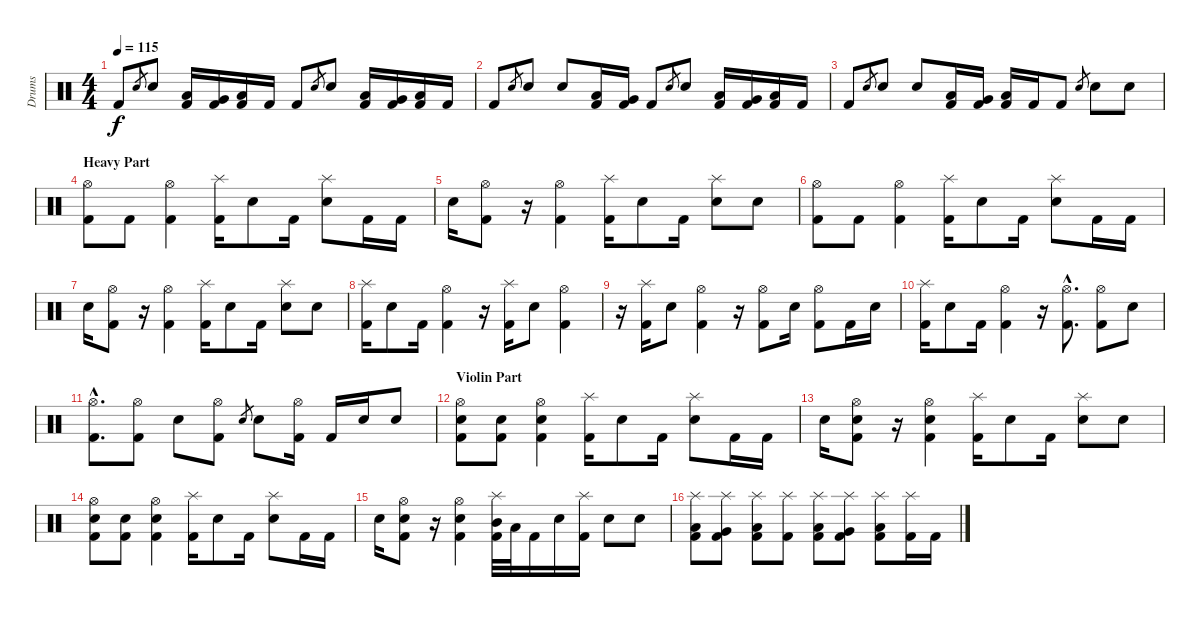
\track ("Drums" "Drums") {instrument percussion}
\staff {score}
\articulation defaults
\ts (4 4)
\tempo 115
\clef neutral
\ks c "Kick (hit) 2".8{dy f} "Snare (hit) 2".8{gr} "Snare (hit) 2".8
("Low Tom (hit)" "Kick (hit) 2").16 ("Very Low Tom (hit)" "Kick (hit) 2").16 ("Low Floor Tom (hit)" "Kick (hit) 2").16 "Kick (hit) 2".16 "Kick (hit) 2".8 "Snare (hit) 2".8{gr} "Snare (hit) 2".8 ("Low Tom (hit)" "Kick (hit) 2").16 ("Very Low Tom (hit)" "Kick (hit) 2").16 ("Low Floor Tom (hit)" "Kick (hit) 2").16 "Kick (hit) 2".16 |
"Kick (hit) 2".8 "Snare (hit) 2".8{gr} "Snare (hit) 2".8 "Snare (hit) 2".8 ("Low Tom (hit)" "Kick (hit) 2").16 ("Very Low Tom (hit)" "Kick (hit) 2").16 "Kick (hit) 2".8 "Snare (hit) 2".8{gr} "Snare (hit) 2".8 ("Low Tom (hit)" "Kick (hit) 2").16 ("Very Low Tom (hit)" "Kick (hit) 2").16 ("Low Floor Tom (hit)" "Kick (hit) 2").16 "Kick (hit) 2".16 |
"Kick (hit) 2".8 "Snare (hit) 2".8{gr} "Snare (hit) 2".8 "Snare (hit) 2".8 ("Low Tom (hit)" "Kick (hit) 2").16 ("Very Low Tom (hit)" "Kick (hit) 2").16 ("Low Floor Tom (hit)" "Kick (hit) 2").16 "Kick (hit) 2".16 "Kick (hit) 2".8 "Snare (hit) 2".8{gr} "Snare (hit) 2".8 "Snare (hit) 2".8 |
\section ("" "Heavy Part")
("Hi-Hat (open)" "Kick (hit) 2").8 "Kick (hit) 2".8 ("Hi-Hat (open)" "Kick (hit) 2").4 ("Splash (hit)" "Kick (hit) 2").16 "Snare (hit) 2".8 "Kick (hit) 2".16 ("Splash (hit)" "Electric Snare (hit)").8 "Kick (hit) 2".16 "Kick (hit) 2".16 |
"Electric Snare (hit)".16 ("Hi-Hat (open)" "Kick (hit) 2").8 r.16 ("Hi-Hat (open)" "Kick (hit) 2").4 ("Splash (hit)" "Kick (hit) 2").16 "Snare (hit) 2".8 "Kick (hit) 2".16 ("Splash (hit)" "Electric Snare (hit)").8 "Electric Snare (hit)".8 |
("Hi-Hat (open)" "Kick (hit) 2").8 "Kick (hit) 2".8 ("Hi-Hat (open)" "Kick (hit) 2").4 ("Splash (hit)" "Kick (hit) 2").16 "Snare (hit) 2".8 "Kick (hit) 2".16 ("Splash (hit)" "Electric Snare (hit)").8 "Kick (hit) 2".16 "Kick (hit) 2".16 |
"Electric Snare (hit)".16 ("Hi-Hat (open)" "Kick (hit) 2").8 r.16 ("Hi-Hat (open)" "Kick (hit) 2").4 ("Splash (hit)" "Kick (hit) 2").16 "Snare (hit) 2".8 "Kick (hit) 2".16 ("Splash (hit)" "Electric Snare (hit)").8 "Electric Snare (hit)".8 |
("Splash (hit)" "Kick (hit) 2").16 "Snare (hit) 2".8 "Kick (hit) 2".16 ("Hi-Hat (open)" "Kick (hit) 2").4 r.16 ("Splash (hit)" "Kick (hit) 2").16 "Snare (hit) 2".8 ("Hi-Hat (open)" "Kick (hit) 2").4 |
r.16 ("Splash (hit)" "Kick (hit) 2").16 "Snare (hit) 2".8 ("Hi-Hat (open)" "Kick (hit) 2").4 r.16 ("Hi-Hat (open)" "Kick (hit) 2").8 "Snare (hit) 2".16 ("Hi-Hat (open)" "Kick (hit) 2").8 "Kick (hit) 2".16 "Snare (hit) 2".16 |
("Splash (hit)" "Kick (hit) 2").16 "Snare (hit) 2".8 "Kick (hit) 2".16 ("Hi-Hat (open)" "Kick (hit) 2").4 r.16 ("Hi-Hat (open)"{hac} "Kick (hit) 2"{hac}).8{d} ("Hi-Hat (open)" "Kick (hit) 2").8 "Electric Snare (hit)".8 |
("Hi-Hat (open)"{hac} "Kick (hit) 2"{hac}).8{d} ("Hi-Hat (open)" "Kick (hit) 2").8 "Electric Snare (hit)".8 ("Hi-Hat (open)" "Kick (hit) 2").8 "Snare (hit) 2".8{gr} "Snare (hit) 2".8 ("Hi-Hat (open)" "Kick (hit) 2").16 "Kick (hit) 2".16 "Snare (hit) 2".16 "Snare (hit) 2".8 |
\section ("" "Violin Part")
("Hi-Hat (open)" "Snare (hit) 2" "Kick (hit) 2").8 ("Snare (hit) 2" "Kick (hit) 2").8 ("Hi-Hat (open)" "Snare (hit) 2" "Kick (hit) 2").4 ("Splash (hit)" "Kick (hit) 2").16 "Snare (hit) 2".8 "Kick (hit) 2".16 ("Splash (hit)" "Electric Snare (hit)").8 "Kick (hit) 2".16 "Kick (hit) 2".16 |
"Electric Snare (hit)".16 ("Hi-Hat (open)" "Snare (hit) 2" "Kick (hit) 2").8 r.16 ("Hi-Hat (open)" "Snare (hit) 2" "Kick (hit) 2").4 ("Splash (hit)" "Kick (hit) 2").16 "Snare (hit) 2".8 "Kick (hit) 2".16 ("Splash (hit)" "Electric Snare (hit)").8 "Electric Snare (hit)".8 |
("Hi-Hat (open)" "Snare (hit) 2" "Kick (hit) 2").8 ("Snare (hit) 2" "Kick (hit) 2").8 ("Hi-Hat (open)" "Snare (hit) 2" "Kick (hit) 2").4 ("Splash (hit)" "Kick (hit) 2").16 "Snare (hit) 2".8 "Kick (hit) 2".16 ("Splash (hit)" "Electric Snare (hit)").8 "Kick (hit) 2".16 "Kick (hit) 2".16 |
"Electric Snare (hit)".16 ("Hi-Hat (open)" "Snare (hit) 2" "Kick (hit) 2").8 r.16 ("Hi-Hat (open)" "Snare (hit) 2" "Kick (hit) 2").4 ("Splash (hit)" "Mid Tom (hit)" "Kick (hit) 2").32 "Low Tom (hit)".32 "Kick (hit) 2".16 "Snare (hit) 2".16 ("Splash (hit)" "Kick (hit) 2").16 "Snare (hit) 2".8 "Snare (hit) 2".8 |
("Splash (hit)" "Low Tom (hit)" "Kick (hit) 2").8 ("Splash (hit)" "Very Low Tom (hit)" "Kick (hit) 2").8 ("Splash (hit)" "Low Floor Tom (hit)" "Kick (hit) 2").8 ("Splash (hit)" "Kick (hit) 2").8 ("Splash (hit)" "Low Tom (hit)" "Kick (hit) 2").8 ("Splash (hit)" "Very Low Tom (hit)" "Kick (hit) 2").8 ("Splash (hit)" "Low Floor Tom (hit)" "Kick (hit) 2").8 ("Splash (hit)" "Kick (hit) 2").16 "Kick (hit) 2".16
